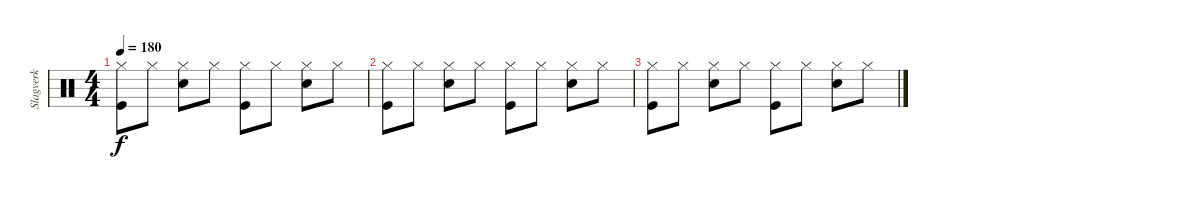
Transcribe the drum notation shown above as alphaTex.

\track ("Slagverk" "Slagverk") {instrument percussion}
\staff {score}
\articulation defaults
\ts (4 4)
\tempo 180
\clef neutral
\ks c
("Hi-Hat (closed)" "Kick (hit)").8{dy f} "Hi-Hat (closed)".8 ("Hi-Hat (closed)" "Snare (hit) 2").8 "Hi-Hat (closed)".8 ("Hi-Hat (closed)" "Kick (hit)").8 "Hi-Hat (closed)".8 ("Hi-Hat (closed)" "Snare (hit) 2").8 "Hi-Hat (closed)".8 |
("Hi-Hat (closed)" "Kick (hit)").8 "Hi-Hat (closed)".8 ("Hi-Hat (closed)" "Snare (hit) 2").8 "Hi-Hat (closed)".8 ("Hi-Hat (closed)" "Kick (hit)").8 "Hi-Hat (closed)".8 ("Hi-Hat (closed)" "Snare (hit) 2").8 "Hi-Hat (closed)".8 |
("Hi-Hat (closed)" "Kick (hit)").8 "Hi-Hat (closed)".8 ("Hi-Hat (closed)" "Snare (hit) 2").8 "Hi-Hat (closed)".8 ("Hi-Hat (closed)" "Kick (hit)").8 "Hi-Hat (closed)".8 ("Hi-Hat (closed)" "Snare (hit) 2").8 "Hi-Hat (closed)".8
